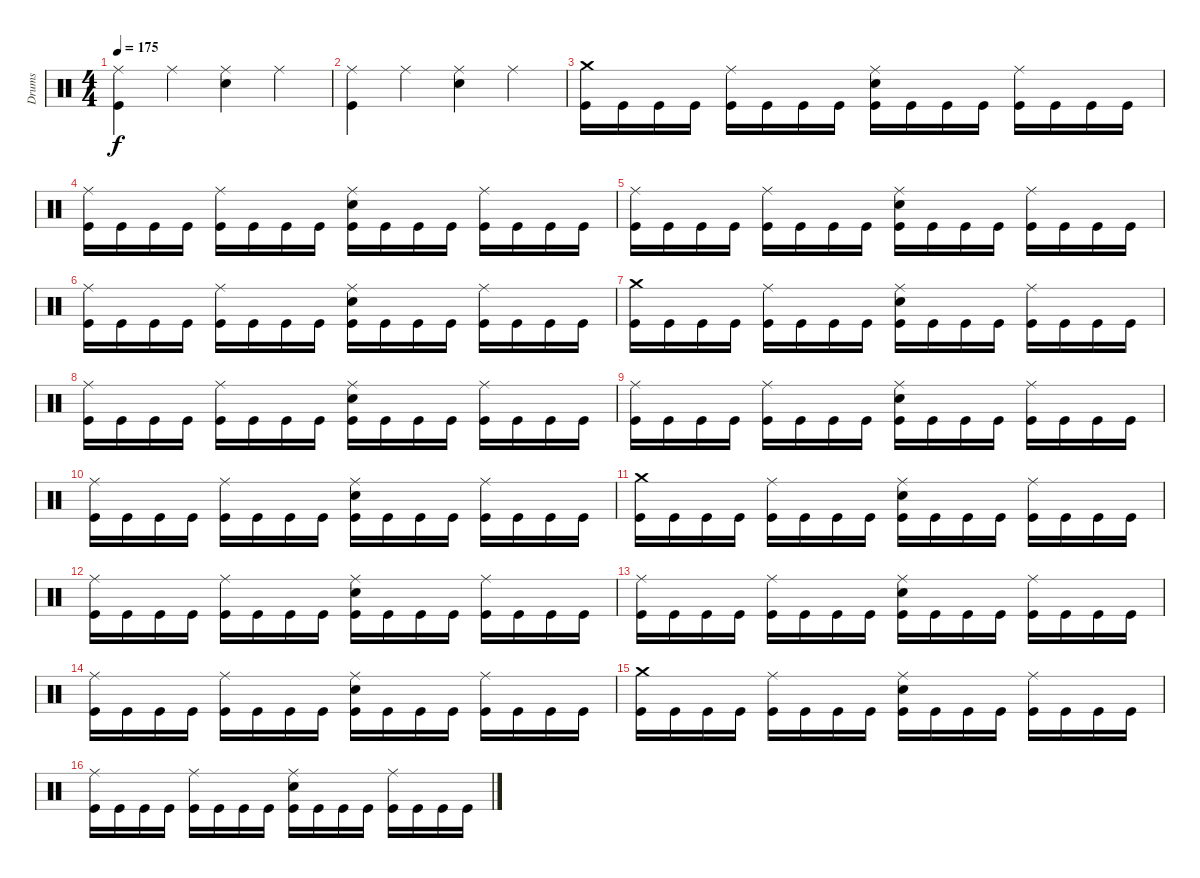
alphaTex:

\track ("Drums" "Drums") {instrument percussion}
\staff {score}
\articulation defaults
\ts (4 4)
\tempo 175
\clef neutral
\ks c
("Ride (middle)" "Kick (hit)").4{dy f} "Ride (middle)".4 ("Ride (middle)" "Snare (hit) 2").4 "Ride (middle)".4 |
("Ride (middle)" "Kick (hit)").4 "Ride (middle)".4 ("Ride (middle)" "Snare (hit) 2").4 "Ride (middle)".4 |
("Crash medium (hit)" "Kick (hit)").16 "Kick (hit)".16 "Kick (hit)".16 "Kick (hit)".16 ("Ride (middle)" "Kick (hit)").16 "Kick (hit)".16 "Kick (hit)".16 "Kick (hit)".16 ("Ride (middle)" "Snare (hit) 2" "Kick (hit)").16 "Kick (hit)".16 "Kick (hit)".16 "Kick (hit)".16 ("Ride (middle)" "Kick (hit)").16 "Kick (hit)".16 "Kick (hit)".16 "Kick (hit)".16 |
("Ride (middle)" "Kick (hit)").16 "Kick (hit)".16 "Kick (hit)".16 "Kick (hit)".16 ("Ride (middle)" "Kick (hit)").16 "Kick (hit)".16 "Kick (hit)".16 "Kick (hit)".16 ("Ride (middle)" "Snare (hit) 2" "Kick (hit)").16 "Kick (hit)".16 "Kick (hit)".16 "Kick (hit)".16 ("Ride (middle)" "Kick (hit)").16 "Kick (hit)".16 "Kick (hit)".16 "Kick (hit)".16 |
("Ride (middle)" "Kick (hit)").16 "Kick (hit)".16 "Kick (hit)".16 "Kick (hit)".16 ("Ride (middle)" "Kick (hit)").16 "Kick (hit)".16 "Kick (hit)".16 "Kick (hit)".16 ("Ride (middle)" "Snare (hit) 2" "Kick (hit)").16 "Kick (hit)".16 "Kick (hit)".16 "Kick (hit)".16 ("Ride (middle)" "Kick (hit)").16 "Kick (hit)".16 "Kick (hit)".16 "Kick (hit)".16 |
("Ride (middle)" "Kick (hit)").16 "Kick (hit)".16 "Kick (hit)".16 "Kick (hit)".16 ("Ride (middle)" "Kick (hit)").16 "Kick (hit)".16 "Kick (hit)".16 "Kick (hit)".16 ("Ride (middle)" "Snare (hit) 2" "Kick (hit)").16 "Kick (hit)".16 "Kick (hit)".16 "Kick (hit)".16 ("Ride (middle)" "Kick (hit)").16 "Kick (hit)".16 "Kick (hit)".16 "Kick (hit)".16 |
("Crash medium (hit)" "Kick (hit)").16 "Kick (hit)".16 "Kick (hit)".16 "Kick (hit)".16 ("Ride (middle)" "Kick (hit)").16 "Kick (hit)".16 "Kick (hit)".16 "Kick (hit)".16 ("Ride (middle)" "Snare (hit) 2" "Kick (hit)").16 "Kick (hit)".16 "Kick (hit)".16 "Kick (hit)".16 ("Ride (middle)" "Kick (hit)").16 "Kick (hit)".16 "Kick (hit)".16 "Kick (hit)".16 |
("Ride (middle)" "Kick (hit)").16 "Kick (hit)".16 "Kick (hit)".16 "Kick (hit)".16 ("Ride (middle)" "Kick (hit)").16 "Kick (hit)".16 "Kick (hit)".16 "Kick (hit)".16 ("Ride (middle)" "Snare (hit) 2" "Kick (hit)").16 "Kick (hit)".16 "Kick (hit)".16 "Kick (hit)".16 ("Ride (middle)" "Kick (hit)").16 "Kick (hit)".16 "Kick (hit)".16 "Kick (hit)".16 |
("Ride (middle)" "Kick (hit)").16 "Kick (hit)".16 "Kick (hit)".16 "Kick (hit)".16 ("Ride (middle)" "Kick (hit)").16 "Kick (hit)".16 "Kick (hit)".16 "Kick (hit)".16 ("Ride (middle)" "Snare (hit) 2" "Kick (hit)").16 "Kick (hit)".16 "Kick (hit)".16 "Kick (hit)".16 ("Ride (middle)" "Kick (hit)").16 "Kick (hit)".16 "Kick (hit)".16 "Kick (hit)".16 |
("Ride (middle)" "Kick (hit)").16 "Kick (hit)".16 "Kick (hit)".16 "Kick (hit)".16 ("Ride (middle)" "Kick (hit)").16 "Kick (hit)".16 "Kick (hit)".16 "Kick (hit)".16 ("Ride (middle)" "Snare (hit) 2" "Kick (hit)").16 "Kick (hit)".16 "Kick (hit)".16 "Kick (hit)".16 ("Ride (middle)" "Kick (hit)").16 "Kick (hit)".16 "Kick (hit)".16 "Kick (hit)".16 |
("Crash medium (hit)" "Kick (hit)").16 "Kick (hit)".16 "Kick (hit)".16 "Kick (hit)".16 ("Ride (middle)" "Kick (hit)").16 "Kick (hit)".16 "Kick (hit)".16 "Kick (hit)".16 ("Ride (middle)" "Snare (hit) 2" "Kick (hit)").16 "Kick (hit)".16 "Kick (hit)".16 "Kick (hit)".16 ("Ride (middle)" "Kick (hit)").16 "Kick (hit)".16 "Kick (hit)".16 "Kick (hit)".16 |
("Ride (middle)" "Kick (hit)").16 "Kick (hit)".16 "Kick (hit)".16 "Kick (hit)".16 ("Ride (middle)" "Kick (hit)").16 "Kick (hit)".16 "Kick (hit)".16 "Kick (hit)".16 ("Ride (middle)" "Snare (hit) 2" "Kick (hit)").16 "Kick (hit)".16 "Kick (hit)".16 "Kick (hit)".16 ("Ride (middle)" "Kick (hit)").16 "Kick (hit)".16 "Kick (hit)".16 "Kick (hit)".16 |
("Ride (middle)" "Kick (hit)").16 "Kick (hit)".16 "Kick (hit)".16 "Kick (hit)".16 ("Ride (middle)" "Kick (hit)").16 "Kick (hit)".16 "Kick (hit)".16 "Kick (hit)".16 ("Ride (middle)" "Snare (hit) 2" "Kick (hit)").16 "Kick (hit)".16 "Kick (hit)".16 "Kick (hit)".16 ("Ride (middle)" "Kick (hit)").16 "Kick (hit)".16 "Kick (hit)".16 "Kick (hit)".16 |
("Ride (middle)" "Kick (hit)").16 "Kick (hit)".16 "Kick (hit)".16 "Kick (hit)".16 ("Ride (middle)" "Kick (hit)").16 "Kick (hit)".16 "Kick (hit)".16 "Kick (hit)".16 ("Ride (middle)" "Snare (hit) 2" "Kick (hit)").16 "Kick (hit)".16 "Kick (hit)".16 "Kick (hit)".16 ("Ride (middle)" "Kick (hit)").16 "Kick (hit)".16 "Kick (hit)".16 "Kick (hit)".16 |
("Crash medium (hit)" "Kick (hit)").16 "Kick (hit)".16 "Kick (hit)".16 "Kick (hit)".16 ("Ride (middle)" "Kick (hit)").16 "Kick (hit)".16 "Kick (hit)".16 "Kick (hit)".16 ("Ride (middle)" "Snare (hit) 2" "Kick (hit)").16 "Kick (hit)".16 "Kick (hit)".16 "Kick (hit)".16 ("Ride (middle)" "Kick (hit)").16 "Kick (hit)".16 "Kick (hit)".16 "Kick (hit)".16 |
("Ride (middle)" "Kick (hit)").16 "Kick (hit)".16 "Kick (hit)".16 "Kick (hit)".16 ("Ride (middle)" "Kick (hit)").16 "Kick (hit)".16 "Kick (hit)".16 "Kick (hit)".16 ("Ride (middle)" "Snare (hit) 2" "Kick (hit)").16 "Kick (hit)".16 "Kick (hit)".16 "Kick (hit)".16 ("Ride (middle)" "Kick (hit)").16 "Kick (hit)".16 "Kick (hit)".16 "Kick (hit)".16
